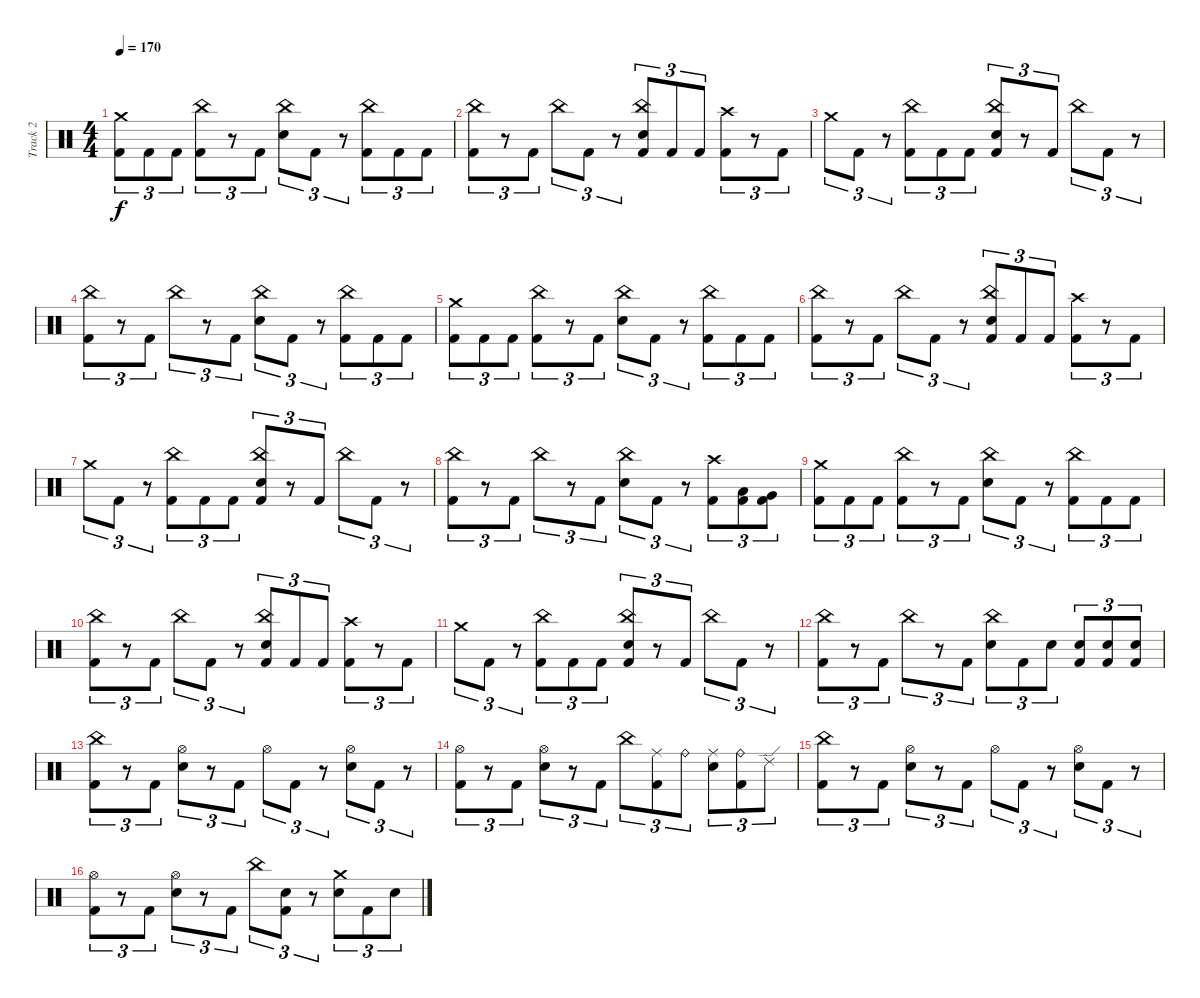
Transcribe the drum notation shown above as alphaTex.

\track ("Track 2" "Track 2") {instrument percussion}
\staff {score}
\articulation defaults
\ts (4 4)
\tempo 170
\clef neutral
\ks c
("Crash medium (hit)" "Kick (hit) 2").8{tu (3 2) dy f} "Kick (hit) 2".8{tu (3 2)} "Kick (hit) 2".8{tu (3 2)} ("China (hit)" "Kick (hit) 2").8{tu (3 2)} r.8{tu (3 2)} "Kick (hit) 2".8{tu (3 2)} ("China (hit)" "Electric Snare (hit)").8{tu (3 2)} "Kick (hit) 2".8{tu (3 2)} r.8{tu (3 2)} ("China (hit)" "Kick (hit) 2").8{tu (3 2)} "Kick (hit) 2".8{tu (3 2)} "Kick (hit) 2".8{tu (3 2)} |
("China (hit)" "Kick (hit) 2").8{tu (3 2)} r.8{tu (3 2)} "Kick (hit) 2".8{tu (3 2)} "China (hit)".8{tu (3 2)} "Kick (hit) 2".8{tu (3 2)} r.8{tu (3 2)} ("China (hit)" "Electric Snare (hit)" "Kick (hit) 2").8{tu (3 2)} "Kick (hit) 2".8{tu (3 2)} "Kick (hit) 2".8{tu (3 2)} ("Crash high (hit)" "Kick (hit) 2").8{tu (3 2)} r.8{tu (3 2)} "Kick (hit) 2".8{tu (3 2)} |
"Crash medium (hit)".8{tu (3 2)} "Kick (hit) 2".8{tu (3 2)} r.8{tu (3 2)} ("China (hit)" "Kick (hit) 2").8{tu (3 2)} "Kick (hit) 2".8{tu (3 2)} "Kick (hit) 2".8{tu (3 2)} ("China (hit)" "Electric Snare (hit)" "Kick (hit) 2").8{tu (3 2)} r.8{tu (3 2)} "Kick (hit) 2".8{tu (3 2)} "China (hit)".8{tu (3 2)} "Kick (hit) 2".8{tu (3 2)} r.8{tu (3 2)} |
("China (hit)" "Kick (hit) 2").8{tu (3 2)} r.8{tu (3 2)} "Kick (hit) 2".8{tu (3 2)} "China (hit)".8{tu (3 2)} r.8{tu (3 2)} "Kick (hit) 2".8{tu (3 2)} ("China (hit)" "Electric Snare (hit)").8{tu (3 2)} "Kick (hit) 2".8{tu (3 2)} r.8{tu (3 2)} ("China (hit)" "Kick (hit) 2").8{tu (3 2)} "Kick (hit) 2".8{tu (3 2)} "Kick (hit) 2".8{tu (3 2)} |
("Crash medium (hit)" "Kick (hit) 2").8{tu (3 2)} "Kick (hit) 2".8{tu (3 2)} "Kick (hit) 2".8{tu (3 2)} ("China (hit)" "Kick (hit) 2").8{tu (3 2)} r.8{tu (3 2)} "Kick (hit) 2".8{tu (3 2)} ("China (hit)" "Electric Snare (hit)").8{tu (3 2)} "Kick (hit) 2".8{tu (3 2)} r.8{tu (3 2)} ("China (hit)" "Kick (hit) 2").8{tu (3 2)} "Kick (hit) 2".8{tu (3 2)} "Kick (hit) 2".8{tu (3 2)} |
("China (hit)" "Kick (hit) 2").8{tu (3 2)} r.8{tu (3 2)} "Kick (hit) 2".8{tu (3 2)} "China (hit)".8{tu (3 2)} "Kick (hit) 2".8{tu (3 2)} r.8{tu (3 2)} ("China (hit)" "Electric Snare (hit)" "Kick (hit) 2").8{tu (3 2)} "Kick (hit) 2".8{tu (3 2)} "Kick (hit) 2".8{tu (3 2)} ("Crash high (hit)" "Kick (hit) 2").8{tu (3 2)} r.8{tu (3 2)} "Kick (hit) 2".8{tu (3 2)} |
"Crash medium (hit)".8{tu (3 2)} "Kick (hit) 2".8{tu (3 2)} r.8{tu (3 2)} ("China (hit)" "Kick (hit) 2").8{tu (3 2)} "Kick (hit) 2".8{tu (3 2)} "Kick (hit) 2".8{tu (3 2)} ("China (hit)" "Electric Snare (hit)" "Kick (hit) 2").8{tu (3 2)} r.8{tu (3 2)} "Kick (hit) 2".8{tu (3 2)} "China (hit)".8{tu (3 2)} "Kick (hit) 2".8{tu (3 2)} r.8{tu (3 2)} |
("China (hit)" "Kick (hit) 2").8{tu (3 2)} r.8{tu (3 2)} "Kick (hit) 2".8{tu (3 2)} "China (hit)".8{tu (3 2)} r.8{tu (3 2)} "Kick (hit) 2".8{tu (3 2)} ("China (hit)" "Electric Snare (hit)").8{tu (3 2)} "Kick (hit) 2".8{tu (3 2)} r.8{tu (3 2)} ("Crash high (hit)" "Kick (hit) 2").8{tu (3 2)} ("Low Tom (hit)" "Kick (hit) 2").8{tu (3 2)} ("Very Low Tom (hit)" "Kick (hit) 2").8{tu (3 2)} |
("Crash medium (hit)" "Kick (hit) 2").8{tu (3 2)} "Kick (hit) 2".8{tu (3 2)} "Kick (hit) 2".8{tu (3 2)} ("China (hit)" "Kick (hit) 2").8{tu (3 2)} r.8{tu (3 2)} "Kick (hit) 2".8{tu (3 2)} ("China (hit)" "Electric Snare (hit)").8{tu (3 2)} "Kick (hit) 2".8{tu (3 2)} r.8{tu (3 2)} ("China (hit)" "Kick (hit) 2").8{tu (3 2)} "Kick (hit) 2".8{tu (3 2)} "Kick (hit) 2".8{tu (3 2)} |
("China (hit)" "Kick (hit) 2").8{tu (3 2)} r.8{tu (3 2)} "Kick (hit) 2".8{tu (3 2)} "China (hit)".8{tu (3 2)} "Kick (hit) 2".8{tu (3 2)} r.8{tu (3 2)} ("China (hit)" "Electric Snare (hit)" "Kick (hit) 2").8{tu (3 2)} "Kick (hit) 2".8{tu (3 2)} "Kick (hit) 2".8{tu (3 2)} ("Crash high (hit)" "Kick (hit) 2").8{tu (3 2)} r.8{tu (3 2)} "Kick (hit) 2".8{tu (3 2)} |
"Crash medium (hit)".8{tu (3 2)} "Kick (hit) 2".8{tu (3 2)} r.8{tu (3 2)} ("China (hit)" "Kick (hit) 2").8{tu (3 2)} "Kick (hit) 2".8{tu (3 2)} "Kick (hit) 2".8{tu (3 2)} ("China (hit)" "Electric Snare (hit)" "Kick (hit) 2").8{tu (3 2)} r.8{tu (3 2)} "Kick (hit) 2".8{tu (3 2)} "China (hit)".8{tu (3 2)} "Kick (hit) 2".8{tu (3 2)} r.8{tu (3 2)} |
("China (hit)" "Kick (hit) 2").8{tu (3 2)} r.8{tu (3 2)} "Kick (hit) 2".8{tu (3 2)} "China (hit)".8{tu (3 2)} r.8{tu (3 2)} "Kick (hit) 2".8{tu (3 2)} ("China (hit)" "Electric Snare (hit)").8{tu (3 2)} "Kick (hit) 2".8{tu (3 2)} "Electric Snare (hit)".8{tu (3 2)} ("Electric Snare (hit)" "Kick (hit) 2").8{tu (3 2)} ("Electric Snare (hit)" "Kick (hit) 2").8{tu (3 2)} ("Electric Snare (hit)" "Kick (hit) 2").8{tu (3 2)} |
("China (hit)" "Kick (hit) 2").8{tu (3 2)} r.8{tu (3 2)} "Kick (hit) 2".8{tu (3 2)} ("Hi-Hat (open)" "Electric Snare (hit)").8{tu (3 2)} r.8{tu (3 2)} "Kick (hit) 2".8{tu (3 2)} "Hi-Hat (open)".8{tu (3 2)} "Kick (hit) 2".8{tu (3 2)} r.8{tu (3 2)} ("Hi-Hat (open)" "Electric Snare (hit)").8{tu (3 2)} "Kick (hit) 2".8{tu (3 2)} r.8{tu (3 2)} |
("Hi-Hat (open)" "Kick (hit) 2").8{tu (3 2)} r.8{tu (3 2)} "Kick (hit) 2".8{tu (3 2)} ("Hi-Hat (open)" "Electric Snare (hit)").8{tu (3 2)} r.8{tu (3 2)} "Kick (hit) 2".8{tu (3 2)} "China (hit)".8{tu (3 2)} ("Ride (middle)" "Kick (hit) 2").8{tu (3 2)} "Ride (bell)".8{tu (3 2)} ("Ride (middle)" "Electric Snare (hit)").8{tu (3 2)} ("Ride (bell)" "Kick (hit) 2").8{tu (3 2)} "Ride (edge) 2".8{tu (3 2)} |
("China (hit)" "Kick (hit) 2").8{tu (3 2)} r.8{tu (3 2)} "Kick (hit) 2".8{tu (3 2)} ("Hi-Hat (open)" "Electric Snare (hit)").8{tu (3 2)} r.8{tu (3 2)} "Kick (hit) 2".8{tu (3 2)} "Hi-Hat (open)".8{tu (3 2)} "Kick (hit) 2".8{tu (3 2)} r.8{tu (3 2)} ("Hi-Hat (open)" "Electric Snare (hit)").8{tu (3 2)} "Kick (hit) 2".8{tu (3 2)} r.8{tu (3 2)} |
("Hi-Hat (open)" "Kick (hit) 2").8{tu (3 2)} r.8{tu (3 2)} "Kick (hit) 2".8{tu (3 2)} ("Hi-Hat (open)" "Electric Snare (hit)").8{tu (3 2)} r.8{tu (3 2)} "Kick (hit) 2".8{tu (3 2)} "China (hit)".8{tu (3 2)} ("Electric Snare (hit)" "Kick (hit) 2").8{tu (3 2)} r.8{tu (3 2)} ("Crash medium (hit)" "Electric Snare (hit)").8{tu (3 2)} "Kick (hit) 2".8{tu (3 2)} "Electric Snare (hit)".8{tu (3 2)}
